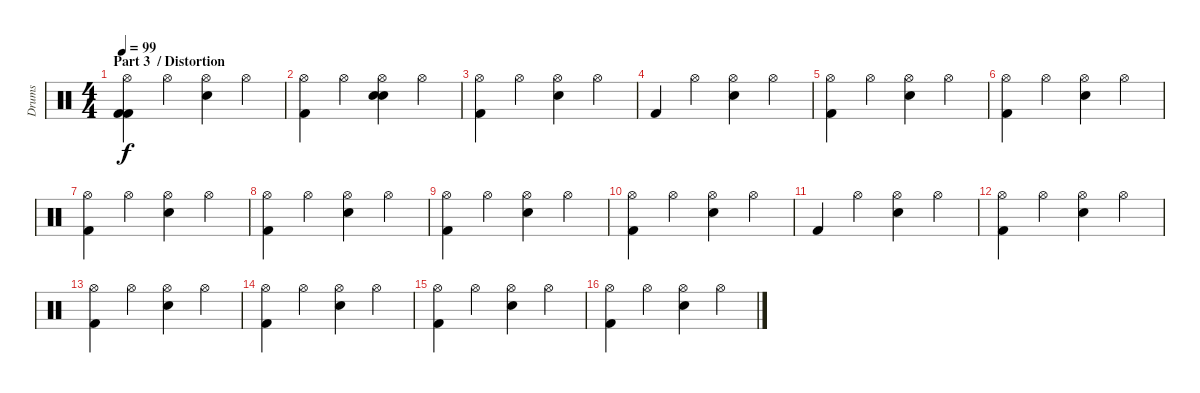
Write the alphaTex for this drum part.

\track ("Drums" "Drums") {instrument percussion}
\staff {score}
\articulation defaults
\ts (4 4)
\section ("" "Part 3  / Distortion")
\tempo 99
\clef neutral
\ks c
("Hi-Hat (open)" "Kick (hit) 2" "Kick (hit) 2").4{dy f} "Hi-Hat (open)".4 ("Hi-Hat (open)" "Snare (hit) 2").4 "Hi-Hat (open)".4 |
("Hi-Hat (open)" "Kick (hit) 2").4 "Hi-Hat (open)".4 ("Hi-Hat (open)" "Snare (hit) 2" "Snare (hit) 2").4 "Hi-Hat (open)".4 |
("Hi-Hat (open)" "Kick (hit) 2").4 "Hi-Hat (open)".4 ("Hi-Hat (open)" "Snare (hit) 2").4 "Hi-Hat (open)".4 |
"Kick (hit) 2".4 "Hi-Hat (open)".4 ("Hi-Hat (open)" "Snare (hit) 2").4 "Hi-Hat (open)".4 |
("Hi-Hat (open)" "Kick (hit) 2").4 "Hi-Hat (open)".4 ("Hi-Hat (open)" "Snare (hit) 2").4 "Hi-Hat (open)".4 |
("Hi-Hat (open)" "Kick (hit) 2").4 "Hi-Hat (open)".4 ("Hi-Hat (open)" "Snare (hit) 2").4 "Hi-Hat (open)".4 |
("Hi-Hat (open)" "Kick (hit) 2").4 "Hi-Hat (open)".4 ("Hi-Hat (open)" "Snare (hit) 2").4 "Hi-Hat (open)".4 |
("Hi-Hat (open)" "Kick (hit) 2").4 "Hi-Hat (open)".4 ("Hi-Hat (open)" "Snare (hit) 2").4 "Hi-Hat (open)".4 |
("Hi-Hat (open)" "Kick (hit) 2").4 "Hi-Hat (open)".4 ("Hi-Hat (open)" "Snare (hit) 2").4 "Hi-Hat (open)".4 |
("Hi-Hat (open)" "Kick (hit) 2").4 "Hi-Hat (open)".4 ("Hi-Hat (open)" "Snare (hit) 2").4 "Hi-Hat (open)".4 |
"Kick (hit) 2".4 "Hi-Hat (open)".4 ("Hi-Hat (open)" "Snare (hit) 2").4 "Hi-Hat (open)".4 |
("Hi-Hat (open)" "Kick (hit) 2").4 "Hi-Hat (open)".4 ("Hi-Hat (open)" "Snare (hit) 2").4 "Hi-Hat (open)".4 |
("Hi-Hat (open)" "Kick (hit) 2").4 "Hi-Hat (open)".4 ("Hi-Hat (open)" "Snare (hit) 2").4 "Hi-Hat (open)".4 |
("Hi-Hat (open)" "Kick (hit) 2").4 "Hi-Hat (open)".4 ("Hi-Hat (open)" "Snare (hit) 2").4 "Hi-Hat (open)".4 |
("Hi-Hat (open)" "Kick (hit) 2").4 "Hi-Hat (open)".4 ("Hi-Hat (open)" "Snare (hit) 2").4 "Hi-Hat (open)".4 |
("Hi-Hat (open)" "Kick (hit) 2").4 "Hi-Hat (open)".4 ("Hi-Hat (open)" "Snare (hit) 2").4 "Hi-Hat (open)".4
